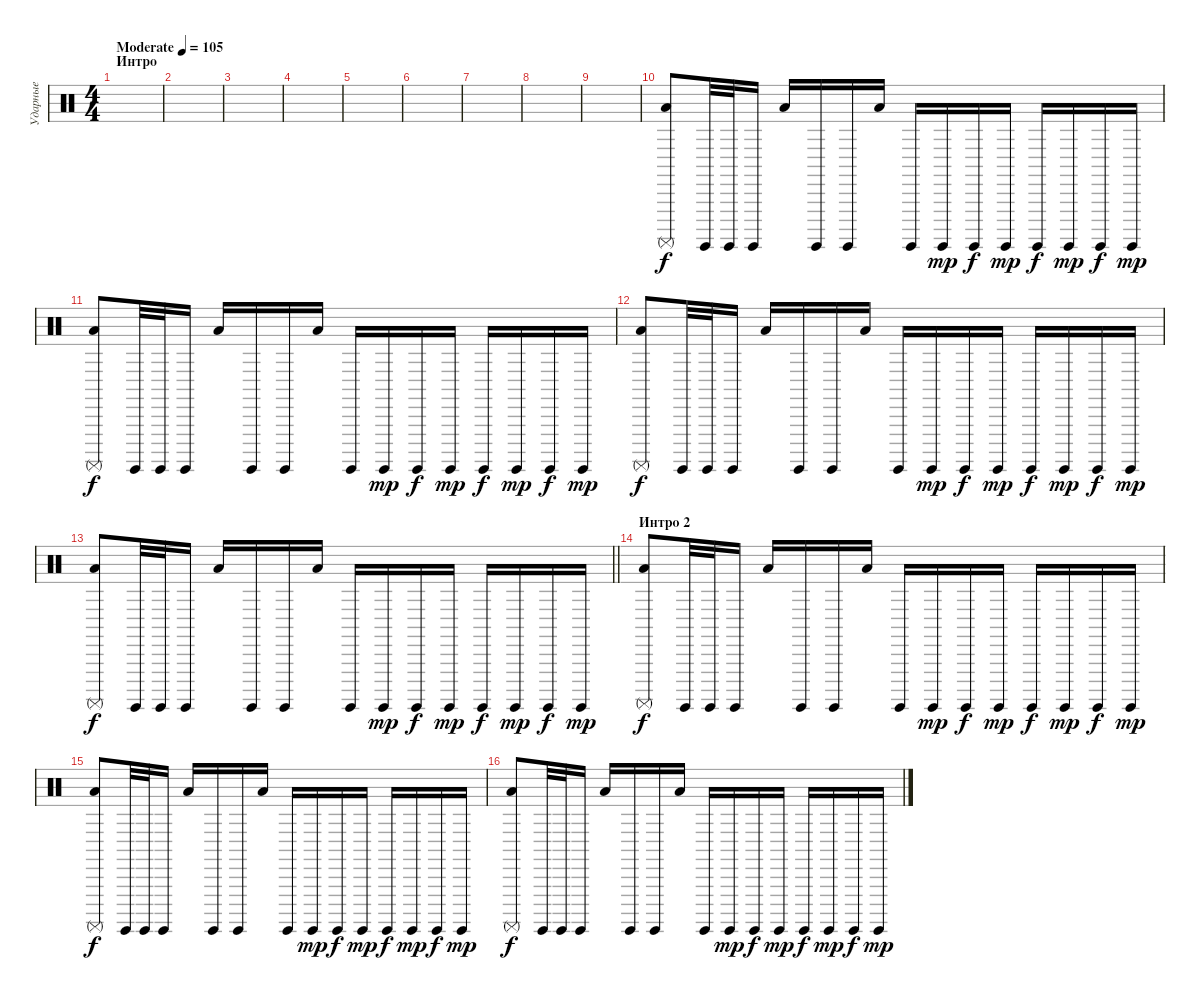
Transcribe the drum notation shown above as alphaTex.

\track ("Ударные" "Ударные") {instrument percussion}
\staff {score}
\articulation defaults
\ts (4 4)
\section ("" "Интро")
\tempo (105 "Moderate")
\clef neutral
\ks c
|
|
|
|
|
|
|
|
|
("Surdo (mute)" "Low Tom (hit)").8 "Surdo (hit)".32 "Surdo (hit)".32 "Surdo (hit)".16 "Low Tom (hit)".16 "Surdo (hit)".16 "Surdo (hit)".16 "Low Tom (hit)".16 "Surdo (hit)".16 "Surdo (hit)".16{dy mp} "Surdo (hit)".16{dy f} "Surdo (hit)".16{dy mp} "Surdo (hit)".16{dy f} "Surdo (hit)".16{dy mp} "Surdo (hit)".16{dy f} "Surdo (hit)".16{dy mp} |
("Surdo (mute)" "Low Tom (hit)").8{dy f} "Surdo (hit)".32 "Surdo (hit)".32 "Surdo (hit)".16 "Low Tom (hit)".16 "Surdo (hit)".16 "Surdo (hit)".16 "Low Tom (hit)".16 "Surdo (hit)".16 "Surdo (hit)".16{dy mp} "Surdo (hit)".16{dy f} "Surdo (hit)".16{dy mp} "Surdo (hit)".16{dy f} "Surdo (hit)".16{dy mp} "Surdo (hit)".16{dy f} "Surdo (hit)".16{dy mp} |
("Surdo (mute)" "Low Tom (hit)").8{dy f} "Surdo (hit)".32 "Surdo (hit)".32 "Surdo (hit)".16 "Low Tom (hit)".16 "Surdo (hit)".16 "Surdo (hit)".16 "Low Tom (hit)".16 "Surdo (hit)".16 "Surdo (hit)".16{dy mp} "Surdo (hit)".16{dy f} "Surdo (hit)".16{dy mp} "Surdo (hit)".16{dy f} "Surdo (hit)".16{dy mp} "Surdo (hit)".16{dy f} "Surdo (hit)".16{dy mp} |
\barLineRight lightlight
("Surdo (mute)" "Low Tom (hit)").8{dy f} "Surdo (hit)".32 "Surdo (hit)".32 "Surdo (hit)".16 "Low Tom (hit)".16 "Surdo (hit)".16 "Surdo (hit)".16 "Low Tom (hit)".16 "Surdo (hit)".16 "Surdo (hit)".16{dy mp} "Surdo (hit)".16{dy f} "Surdo (hit)".16{dy mp} "Surdo (hit)".16{dy f} "Surdo (hit)".16{dy mp} "Surdo (hit)".16{dy f} "Surdo (hit)".16{dy mp} |
\section ("" "Интро 2")
("Surdo (mute)" "Low Tom (hit)").8{dy f} "Surdo (hit)".32 "Surdo (hit)".32 "Surdo (hit)".16 "Low Tom (hit)".16 "Surdo (hit)".16 "Surdo (hit)".16 "Low Tom (hit)".16 "Surdo (hit)".16 "Surdo (hit)".16{dy mp} "Surdo (hit)".16{dy f} "Surdo (hit)".16{dy mp} "Surdo (hit)".16{dy f} "Surdo (hit)".16{dy mp} "Surdo (hit)".16{dy f} "Surdo (hit)".16{dy mp} |
("Surdo (mute)" "Low Tom (hit)").8{dy f} "Surdo (hit)".32 "Surdo (hit)".32 "Surdo (hit)".16 "Low Tom (hit)".16 "Surdo (hit)".16 "Surdo (hit)".16 "Low Tom (hit)".16 "Surdo (hit)".16 "Surdo (hit)".16{dy mp} "Surdo (hit)".16{dy f} "Surdo (hit)".16{dy mp} "Surdo (hit)".16{dy f} "Surdo (hit)".16{dy mp} "Surdo (hit)".16{dy f} "Surdo (hit)".16{dy mp} |
("Surdo (mute)" "Low Tom (hit)").8{dy f} "Surdo (hit)".32 "Surdo (hit)".32 "Surdo (hit)".16 "Low Tom (hit)".16 "Surdo (hit)".16 "Surdo (hit)".16 "Low Tom (hit)".16 "Surdo (hit)".16 "Surdo (hit)".16{dy mp} "Surdo (hit)".16{dy f} "Surdo (hit)".16{dy mp} "Surdo (hit)".16{dy f} "Surdo (hit)".16{dy mp} "Surdo (hit)".16{dy f} "Surdo (hit)".16{dy mp}
